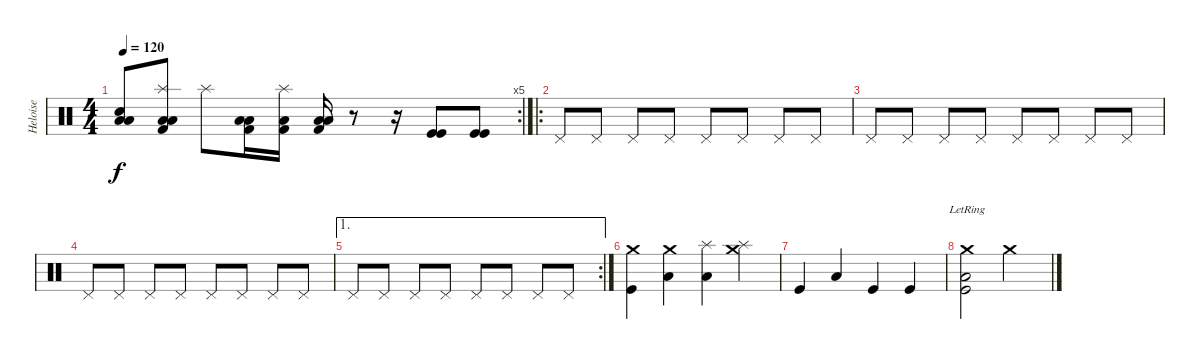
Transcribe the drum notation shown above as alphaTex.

\track ("Heloise" "Heloise") {instrument percussion}
\staff {score}
\articulation defaults
\rc 5
\ts (4 4)
\tempo 120
\clef neutral
\ks c
("Low Tom (hit)" "Low Tom (hit)" "Snare (hit)").8{dy f} ("Splash (hit)" "Kick (hit) 2" "Low Tom (hit)" "Low Tom (hit)").8 "Splash (hit)".8 ("Low Tom (hit)" "Low Tom (hit)" "Kick (hit) 2").16 ("Splash (hit)" "Kick (hit) 2" "Low Tom (hit)").16 ("Kick (hit) 2" "Low Tom (hit)" "Low Tom (hit)").16 r.8 r.16 ("Kick (hit)" "Kick (hit)").8 ("Kick (hit)" "Kick (hit)").8 |
\ro "Pedal Hi-Hat (hit)".8 "Pedal Hi-Hat (hit)".8 "Pedal Hi-Hat (hit)".8 "Pedal Hi-Hat (hit)".8 "Pedal Hi-Hat (hit)".8 "Pedal Hi-Hat (hit)".8 "Pedal Hi-Hat (hit)".8 "Pedal Hi-Hat (hit)".8
|
"Pedal Hi-Hat (hit)".8 "Pedal Hi-Hat (hit)".8 "Pedal Hi-Hat (hit)".8 "Pedal Hi-Hat (hit)".8 "Pedal Hi-Hat (hit)".8 "Pedal Hi-Hat (hit)".8 "Pedal Hi-Hat (hit)".8 "Pedal Hi-Hat (hit)".8 |
"Pedal Hi-Hat (hit)".8 "Pedal Hi-Hat (hit)".8 "Pedal Hi-Hat (hit)".8 "Pedal Hi-Hat (hit)".8 "Pedal Hi-Hat (hit)".8 "Pedal Hi-Hat (hit)".8 "Pedal Hi-Hat (hit)".8 "Pedal Hi-Hat (hit)".8 |
\ae 1
\rc 2 "Pedal Hi-Hat (hit)".8 "Pedal Hi-Hat (hit)".8 "Pedal Hi-Hat (hit)".8 "Pedal Hi-Hat (hit)".8 "Pedal Hi-Hat (hit)".8 "Pedal Hi-Hat (hit)".8 "Pedal Hi-Hat (hit)".8 "Pedal Hi-Hat (hit)".8
|
("Crash medium (hit)" "Kick (hit)").4 ("Crash medium (hit)" "Low Tom (hit)").4 ("Splash (hit)" "Low Tom (hit)").4 ("Splash (hit)" "Crash medium (hit)").4 |
"Kick (hit)".4 "Low Tom (hit)".4 "Kick (hit)".4 "Kick (hit)".4 |
("Crash medium (hit)"{lr} "Kick (hit)"{lr} "Low Tom (hit)"{lr}).2 "Crash medium (hit)".2
